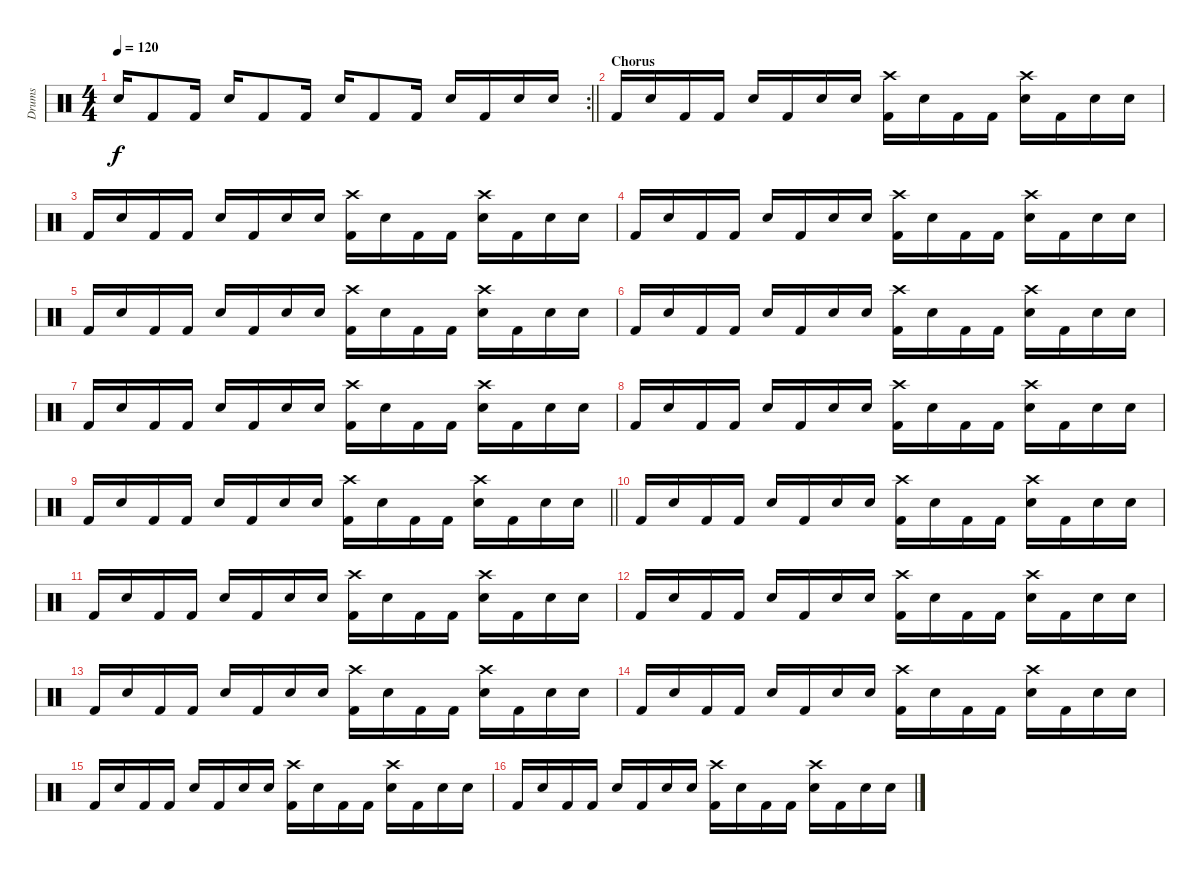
\track ("Drums" "Drums") {instrument percussion}
\staff {score}
\articulation defaults
\rc 2
\ts (4 4)
\tempo 120
\clef neutral
\barLineRight lightlight
\ks c "Snare (hit) 2".16{dy f} "Kick (hit) 2".8 "Kick (hit) 2".16 "Snare (hit) 2".16 "Kick (hit) 2".8 "Kick (hit) 2".16 "Snare (hit) 2".16 "Kick (hit) 2".8 "Kick (hit) 2".16 "Snare (hit) 2".16 "Kick (hit) 2".16 "Snare (hit) 2".16 "Snare (hit) 2".16
|
\section ("" "Chorus")
"Kick (hit) 2".16 "Snare (hit) 2".16 "Kick (hit) 2".16 "Kick (hit) 2".16 "Snare (hit) 2".16 "Kick (hit) 2".16 "Snare (hit) 2".16 "Snare (hit) 2".16 ("Crash high (hit)" "Kick (hit) 2").16 "Snare (hit) 2".16 "Kick (hit) 2".16 "Kick (hit) 2".16 ("Crash high (hit)" "Snare (hit) 2").16 "Kick (hit) 2".16 "Snare (hit) 2".16 "Snare (hit) 2".16 |
"Kick (hit) 2".16 "Snare (hit) 2".16 "Kick (hit) 2".16 "Kick (hit) 2".16 "Snare (hit) 2".16 "Kick (hit) 2".16 "Snare (hit) 2".16 "Snare (hit) 2".16 ("Crash high (hit)" "Kick (hit) 2").16 "Snare (hit) 2".16 "Kick (hit) 2".16 "Kick (hit) 2".16 ("Crash high (hit)" "Snare (hit) 2").16 "Kick (hit) 2".16 "Snare (hit) 2".16 "Snare (hit) 2".16 |
"Kick (hit) 2".16 "Snare (hit) 2".16 "Kick (hit) 2".16 "Kick (hit) 2".16 "Snare (hit) 2".16 "Kick (hit) 2".16 "Snare (hit) 2".16 "Snare (hit) 2".16 ("Crash high (hit)" "Kick (hit) 2").16 "Snare (hit) 2".16 "Kick (hit) 2".16 "Kick (hit) 2".16 ("Crash high (hit)" "Snare (hit) 2").16 "Kick (hit) 2".16 "Snare (hit) 2".16 "Snare (hit) 2".16 |
"Kick (hit) 2".16 "Snare (hit) 2".16 "Kick (hit) 2".16 "Kick (hit) 2".16 "Snare (hit) 2".16 "Kick (hit) 2".16 "Snare (hit) 2".16 "Snare (hit) 2".16 ("Crash high (hit)" "Kick (hit) 2").16 "Snare (hit) 2".16 "Kick (hit) 2".16 "Kick (hit) 2".16 ("Crash high (hit)" "Snare (hit) 2").16 "Kick (hit) 2".16 "Snare (hit) 2".16 "Snare (hit) 2".16 |
"Kick (hit) 2".16 "Snare (hit) 2".16 "Kick (hit) 2".16 "Kick (hit) 2".16 "Snare (hit) 2".16 "Kick (hit) 2".16 "Snare (hit) 2".16 "Snare (hit) 2".16 ("Crash high (hit)" "Kick (hit) 2").16 "Snare (hit) 2".16 "Kick (hit) 2".16 "Kick (hit) 2".16 ("Crash high (hit)" "Snare (hit) 2").16 "Kick (hit) 2".16 "Snare (hit) 2".16 "Snare (hit) 2".16 |
"Kick (hit) 2".16 "Snare (hit) 2".16 "Kick (hit) 2".16 "Kick (hit) 2".16 "Snare (hit) 2".16 "Kick (hit) 2".16 "Snare (hit) 2".16 "Snare (hit) 2".16 ("Crash high (hit)" "Kick (hit) 2").16 "Snare (hit) 2".16 "Kick (hit) 2".16 "Kick (hit) 2".16 ("Crash high (hit)" "Snare (hit) 2").16 "Kick (hit) 2".16 "Snare (hit) 2".16 "Snare (hit) 2".16 |
"Kick (hit) 2".16 "Snare (hit) 2".16 "Kick (hit) 2".16 "Kick (hit) 2".16 "Snare (hit) 2".16 "Kick (hit) 2".16 "Snare (hit) 2".16 "Snare (hit) 2".16 ("Crash high (hit)" "Kick (hit) 2").16 "Snare (hit) 2".16 "Kick (hit) 2".16 "Kick (hit) 2".16 ("Crash high (hit)" "Snare (hit) 2").16 "Kick (hit) 2".16 "Snare (hit) 2".16 "Snare (hit) 2".16 |
\barLineRight lightlight "Kick (hit) 2".16 "Snare (hit) 2".16 "Kick (hit) 2".16 "Kick (hit) 2".16 "Snare (hit) 2".16 "Kick (hit) 2".16 "Snare (hit) 2".16 "Snare (hit) 2".16
("Crash high (hit)" "Kick (hit) 2").16 "Snare (hit) 2".16 "Kick (hit) 2".16 "Kick (hit) 2".16 ("Crash high (hit)" "Snare (hit) 2").16 "Kick (hit) 2".16 "Snare (hit) 2".16 "Snare (hit) 2".16 |
"Kick (hit) 2".16 "Snare (hit) 2".16 "Kick (hit) 2".16 "Kick (hit) 2".16 "Snare (hit) 2".16 "Kick (hit) 2".16 "Snare (hit) 2".16 "Snare (hit) 2".16 ("Crash high (hit)" "Kick (hit) 2").16 "Snare (hit) 2".16 "Kick (hit) 2".16 "Kick (hit) 2".16 ("Crash high (hit)" "Snare (hit) 2").16 "Kick (hit) 2".16 "Snare (hit) 2".16 "Snare (hit) 2".16 |
"Kick (hit) 2".16 "Snare (hit) 2".16 "Kick (hit) 2".16 "Kick (hit) 2".16 "Snare (hit) 2".16 "Kick (hit) 2".16 "Snare (hit) 2".16 "Snare (hit) 2".16 ("Crash high (hit)" "Kick (hit) 2").16 "Snare (hit) 2".16 "Kick (hit) 2".16 "Kick (hit) 2".16 ("Crash high (hit)" "Snare (hit) 2").16 "Kick (hit) 2".16 "Snare (hit) 2".16 "Snare (hit) 2".16 |
"Kick (hit) 2".16 "Snare (hit) 2".16 "Kick (hit) 2".16 "Kick (hit) 2".16 "Snare (hit) 2".16 "Kick (hit) 2".16 "Snare (hit) 2".16 "Snare (hit) 2".16 ("Crash high (hit)" "Kick (hit) 2").16 "Snare (hit) 2".16 "Kick (hit) 2".16 "Kick (hit) 2".16 ("Crash high (hit)" "Snare (hit) 2").16 "Kick (hit) 2".16 "Snare (hit) 2".16 "Snare (hit) 2".16 |
"Kick (hit) 2".16 "Snare (hit) 2".16 "Kick (hit) 2".16 "Kick (hit) 2".16 "Snare (hit) 2".16 "Kick (hit) 2".16 "Snare (hit) 2".16 "Snare (hit) 2".16 ("Crash high (hit)" "Kick (hit) 2").16 "Snare (hit) 2".16 "Kick (hit) 2".16 "Kick (hit) 2".16 ("Crash high (hit)" "Snare (hit) 2").16 "Kick (hit) 2".16 "Snare (hit) 2".16 "Snare (hit) 2".16 |
"Kick (hit) 2".16 "Snare (hit) 2".16 "Kick (hit) 2".16 "Kick (hit) 2".16 "Snare (hit) 2".16 "Kick (hit) 2".16 "Snare (hit) 2".16 "Snare (hit) 2".16 ("Crash high (hit)" "Kick (hit) 2").16 "Snare (hit) 2".16 "Kick (hit) 2".16 "Kick (hit) 2".16 ("Crash high (hit)" "Snare (hit) 2").16 "Kick (hit) 2".16 "Snare (hit) 2".16 "Snare (hit) 2".16 |
"Kick (hit) 2".16 "Snare (hit) 2".16 "Kick (hit) 2".16 "Kick (hit) 2".16 "Snare (hit) 2".16 "Kick (hit) 2".16 "Snare (hit) 2".16 "Snare (hit) 2".16 ("Crash high (hit)" "Kick (hit) 2").16 "Snare (hit) 2".16 "Kick (hit) 2".16 "Kick (hit) 2".16 ("Crash high (hit)" "Snare (hit) 2").16 "Kick (hit) 2".16 "Snare (hit) 2".16 "Snare (hit) 2".16 |
"Kick (hit) 2".16 "Snare (hit) 2".16 "Kick (hit) 2".16 "Kick (hit) 2".16 "Snare (hit) 2".16 "Kick (hit) 2".16 "Snare (hit) 2".16 "Snare (hit) 2".16 ("Crash high (hit)" "Kick (hit) 2").16 "Snare (hit) 2".16 "Kick (hit) 2".16 "Kick (hit) 2".16 ("Crash high (hit)" "Snare (hit) 2").16 "Kick (hit) 2".16 "Snare (hit) 2".16 "Snare (hit) 2".16
